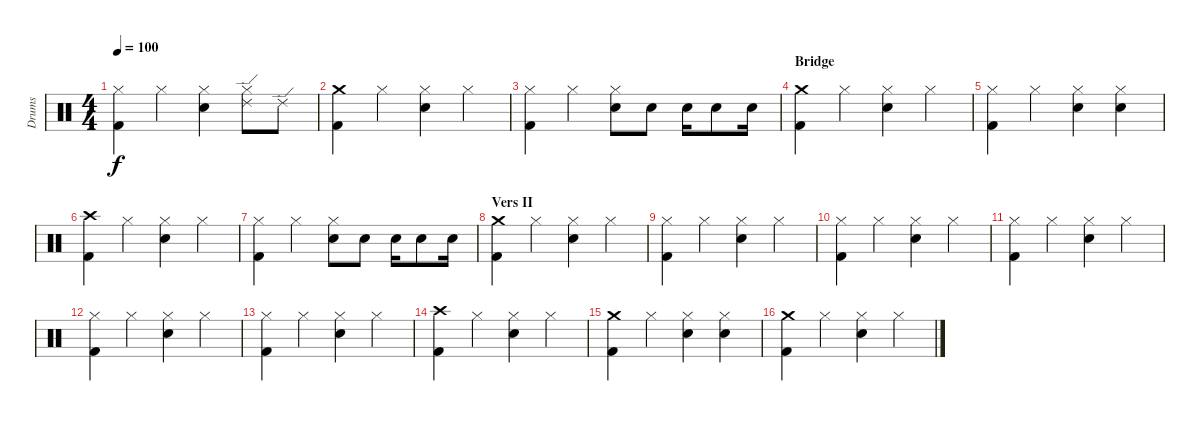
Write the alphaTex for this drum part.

\track ("Drums" "Drums") {instrument percussion}
\staff {score}
\articulation defaults
\ts (4 4)
\tempo 100
\clef neutral
\ks c
("Hi-Hat (closed)" "Kick (hit) 2").4{dy f} "Hi-Hat (closed)".4 ("Hi-Hat (closed)" "Snare (hit) 2").4 ("Hi-Hat (closed)" "Ride (edge) 2").8 "Ride (edge) 2".8 |
("Crash medium (hit)" "Kick (hit) 2").4 "Hi-Hat (closed)".4 ("Hi-Hat (closed)" "Snare (hit) 2").4 "Hi-Hat (closed)".4 |
("Hi-Hat (closed)" "Kick (hit) 2").4 "Hi-Hat (closed)".4 ("Hi-Hat (closed)" "Snare (hit) 2").8 "Snare (hit) 2".8 "Snare (hit) 2".16 "Snare (hit) 2".8 "Snare (hit) 2".16 |
\section ("" "Bridge")
("Crash medium (hit)" "Kick (hit) 2").4 "Hi-Hat (closed)".4 ("Hi-Hat (closed)" "Snare (hit) 2").4 "Hi-Hat (closed)".4 |
("Hi-Hat (closed)" "Kick (hit) 2").4 "Hi-Hat (closed)".4 ("Hi-Hat (closed)" "Snare (hit) 2").4 ("Hi-Hat (closed)" "Snare (hit) 2").4 |
("Crash high (hit)" "Kick (hit) 2").4 "Hi-Hat (closed)".4 ("Hi-Hat (closed)" "Snare (hit) 2").4 "Hi-Hat (closed)".4 |
("Hi-Hat (closed)" "Kick (hit) 2").4 "Hi-Hat (closed)".4 ("Hi-Hat (closed)" "Snare (hit) 2").8 "Snare (hit) 2".8 "Snare (hit) 2".16 "Snare (hit) 2".8 "Snare (hit) 2".16 |
\section ("" "Vers II")
("Crash medium (hit)" "Kick (hit) 2").4 "Hi-Hat (closed)".4 ("Hi-Hat (closed)" "Snare (hit) 2").4 "Hi-Hat (closed)".4 |
("Hi-Hat (closed)" "Kick (hit) 2").4 "Hi-Hat (closed)".4 ("Hi-Hat (closed)" "Snare (hit) 2").4 "Hi-Hat (closed)".4 |
("Hi-Hat (closed)" "Kick (hit) 2").4 "Hi-Hat (closed)".4 ("Hi-Hat (closed)" "Snare (hit) 2").4 "Hi-Hat (closed)".4 |
("Hi-Hat (closed)" "Kick (hit) 2").4 "Hi-Hat (closed)".4 ("Hi-Hat (closed)" "Snare (hit) 2").4 "Hi-Hat (closed)".4 |
("Hi-Hat (closed)" "Kick (hit) 2").4 "Hi-Hat (closed)".4 ("Hi-Hat (closed)" "Snare (hit) 2").4 "Hi-Hat (closed)".4 |
("Hi-Hat (closed)" "Kick (hit) 2").4 "Hi-Hat (closed)".4 ("Hi-Hat (closed)" "Snare (hit) 2").4 "Hi-Hat (closed)".4 |
("Crash high (hit)" "Kick (hit) 2").4 "Hi-Hat (closed)".4 ("Hi-Hat (closed)" "Snare (hit) 2").4 "Hi-Hat (closed)".4 |
("Crash medium (hit)" "Kick (hit) 2").4 "Hi-Hat (closed)".4 ("Hi-Hat (closed)" "Snare (hit) 2").4 ("Hi-Hat (closed)" "Snare (hit) 2").4 |
("Crash medium (hit)" "Kick (hit) 2").4 "Hi-Hat (closed)".4 ("Hi-Hat (closed)" "Snare (hit) 2").4 "Hi-Hat (closed)".4
